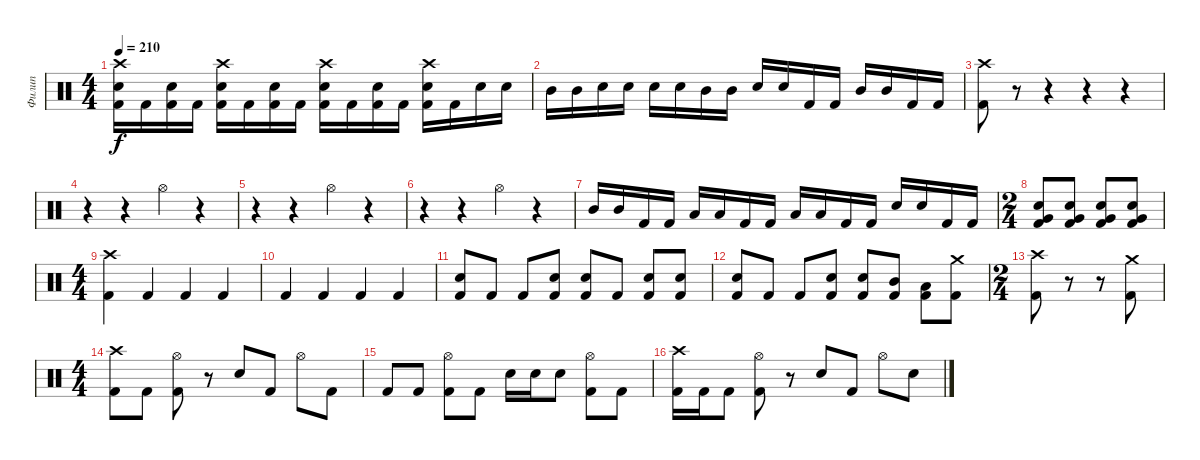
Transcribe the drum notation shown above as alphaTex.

\track ("Филип" "Филип") {instrument percussion}
\staff {score}
\articulation defaults
\ts (4 4)
\tempo 210
\clef neutral
\ks c
("Crash high (hit)" "Electric Snare (hit)" "Kick (hit) 2").16{dy f} "Kick (hit) 2".16 ("Electric Snare (hit)" "Kick (hit) 2").16 "Kick (hit) 2".16 ("Crash high (hit)" "Electric Snare (hit)" "Kick (hit) 2").16 "Kick (hit) 2".16 ("Electric Snare (hit)" "Kick (hit) 2").16 "Kick (hit) 2".16 ("Crash high (hit)" "Electric Snare (hit)" "Kick (hit) 2").16 "Kick (hit) 2".16 ("Electric Snare (hit)" "Kick (hit) 2").16 "Kick (hit) 2".16 ("Crash high (hit)" "Electric Snare (hit)" "Kick (hit) 2").16 "Kick (hit) 2".16 "Electric Snare (hit)".16 "Electric Snare (hit)".16 |
"Mid Tom (hit)".16 "Mid Tom (hit)".16 "Electric Snare (hit)".16 "Electric Snare (hit)".16 "Electric Snare (hit)".16 "Electric Snare (hit)".16 "Mid Tom (hit)".16 "Mid Tom (hit)".16 "Electric Snare (hit)".16 "Electric Snare (hit)".16 "Kick (hit) 2".16 "Kick (hit) 2".16 "Mid Tom (hit)".16 "Mid Tom (hit)".16 "Kick (hit) 2".16 "Kick (hit) 2".16 |
("Crash high (hit)" "Kick (hit) 2").8 r.8 r.4 r.4 r.4 |
r.4 r.4 "Hi-Hat (open)".4 r.4 |
r.4 r.4 "Hi-Hat (open)".4 r.4 |
r.4 r.4 "Hi-Hat (open)".4 r.4 |
"Mid Tom (hit)".16 "Mid Tom (hit)".16 "Kick (hit) 2".16 "Kick (hit) 2".16 "Low Tom (hit)".16 "Low Tom (hit)".16 "Kick (hit) 2".16 "Kick (hit) 2".16 "Low Tom (hit)".16 "Low Tom (hit)".16 "Kick (hit) 2".16 "Kick (hit) 2".16 "Electric Snare (hit)".16 "Electric Snare (hit)".16 "Kick (hit) 2".16 "Kick (hit) 2".16 |
\ts (2 4)
("Electric Snare (hit)" "Very Low Tom (hit)" "Kick (hit) 2").8 ("Electric Snare (hit)" "Very Low Tom (hit)" "Kick (hit) 2").8 ("Electric Snare (hit)" "Very Low Tom (hit)" "Kick (hit) 2").8 ("Electric Snare (hit)" "Very Low Tom (hit)" "Kick (hit) 2").8 |
\ts (4 4)
("Crash high (hit)" "Kick (hit) 2").4 "Kick (hit) 2".4 "Kick (hit) 2".4 "Kick (hit) 2".4 |
"Kick (hit) 2".4 "Kick (hit) 2".4 "Kick (hit) 2".4 "Kick (hit) 2".4 |
("Electric Snare (hit)" "Kick (hit) 2").8 "Kick (hit) 2".8 "Kick (hit) 2".8 ("Electric Snare (hit)" "Kick (hit) 2").8 ("Electric Snare (hit)" "Kick (hit) 2").8 "Kick (hit) 2".8 ("Electric Snare (hit)" "Kick (hit) 2").8 ("Electric Snare (hit)" "Kick (hit) 2").8 |
("Electric Snare (hit)" "Kick (hit) 2").8 "Kick (hit) 2".8 "Kick (hit) 2".8 ("Electric Snare (hit)" "Kick (hit) 2").8 ("Electric Snare (hit)" "Kick (hit) 2").8 ("Mid Tom (hit)" "Kick (hit) 2").8 ("Low Tom (hit)" "Kick (hit) 2").8 ("Crash medium (hit)" "Kick (hit) 2").8 |
\ts (2 4)
("Crash high (hit)" "Kick (hit) 2").8 r.8 r.8 ("Crash medium (hit)" "Kick (hit) 2").8 |
\ts (4 4)
("Crash high (hit)" "Kick (hit) 2").8 "Kick (hit) 2".8 ("Hi-Hat (open)" "Kick (hit) 2").8 r.8 "Electric Snare (hit)".8 "Kick (hit) 2".8 "Hi-Hat (open)".8 "Kick (hit) 2".8 |
"Kick (hit) 2".8 "Kick (hit) 2".8 ("Hi-Hat (open)" "Kick (hit) 2").8 "Kick (hit) 2".8 "Electric Snare (hit)".16 "Electric Snare (hit)".16 "Electric Snare (hit)".8 ("Hi-Hat (open)" "Kick (hit) 2").8 "Kick (hit) 2".8 |
("Crash high (hit)" "Kick (hit) 2").16 "Kick (hit) 2".16 "Kick (hit) 2".8 ("Hi-Hat (open)" "Kick (hit) 2").8 r.8 "Electric Snare (hit)".8 "Kick (hit) 2".8 "Hi-Hat (open)".8 "Electric Snare (hit)".8
